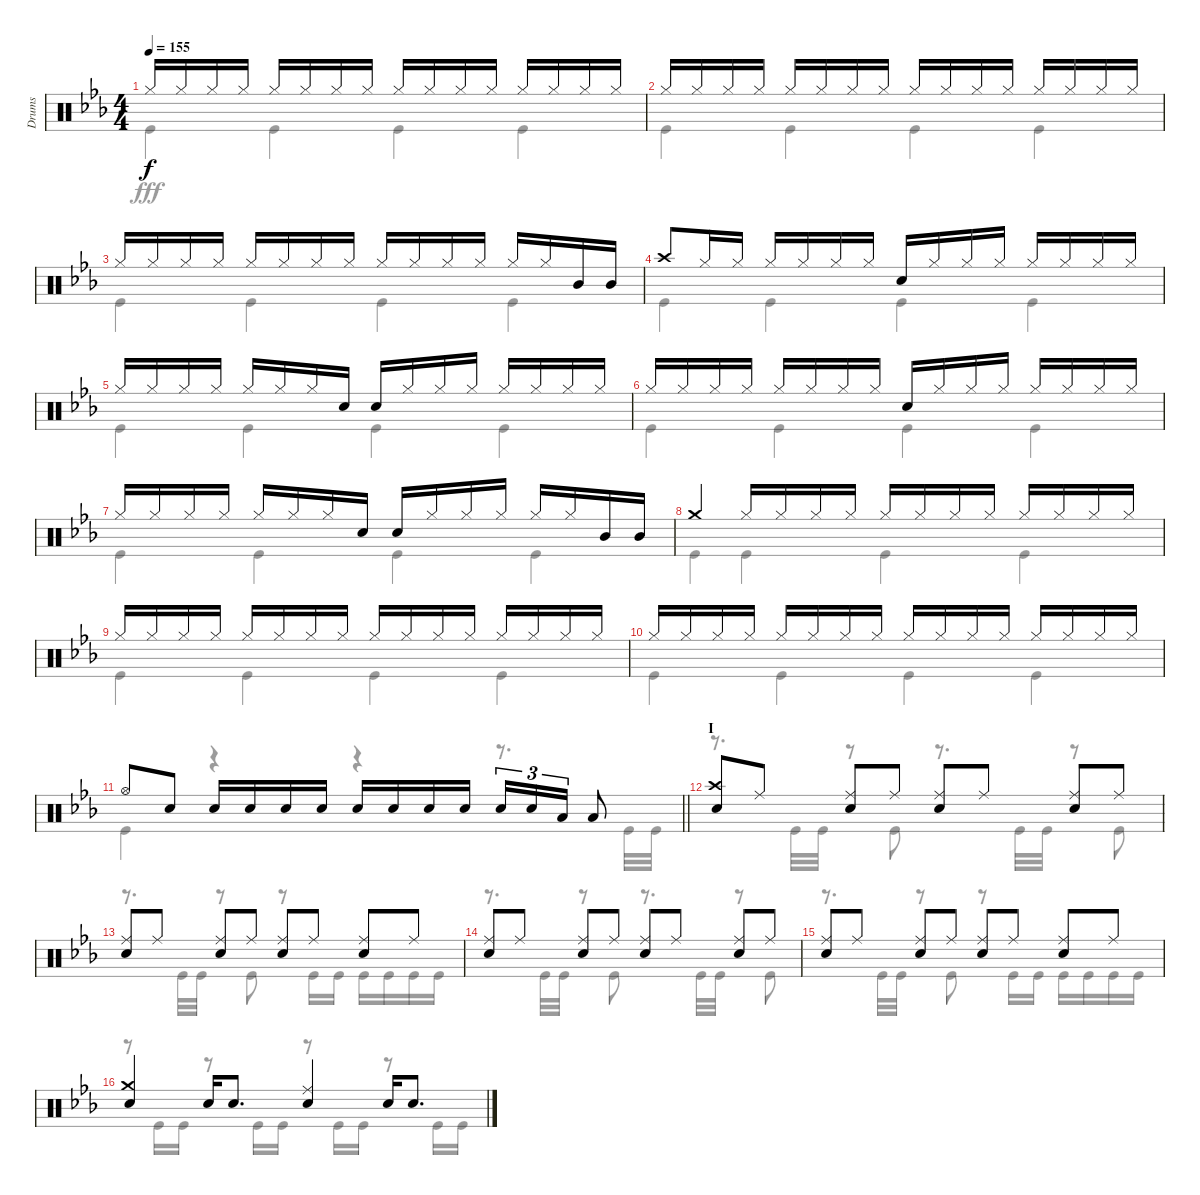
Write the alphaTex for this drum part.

\track ("Drums" "Drums") {instrument percussion}
\staff {score}
\articulation defaults
\voice
\ts (4 4)
\tempo 155
\clef neutral
\ks eb "Hi-Hat (closed)".16{dy f} "Hi-Hat (closed)".16 "Hi-Hat (closed)".16 "Hi-Hat (closed)".16 "Hi-Hat (closed)".16 "Hi-Hat (closed)".16 "Hi-Hat (closed)".16 "Hi-Hat (closed)".16 "Hi-Hat (closed)".16 "Hi-Hat (closed)".16 "Hi-Hat (closed)".16 "Hi-Hat (closed)".16 "Hi-Hat (closed)".16 "Hi-Hat (closed)".16 "Hi-Hat (closed)".16 "Hi-Hat (closed)".16
|
"Hi-Hat (closed)".16 "Hi-Hat (closed)".16 "Hi-Hat (closed)".16 "Hi-Hat (closed)".16 "Hi-Hat (closed)".16 "Hi-Hat (closed)".16 "Hi-Hat (closed)".16 "Hi-Hat (closed)".16 "Hi-Hat (closed)".16 "Hi-Hat (closed)".16 "Hi-Hat (closed)".16 "Hi-Hat (closed)".16 "Hi-Hat (closed)".16 "Hi-Hat (closed)".16 "Hi-Hat (closed)".16 "Hi-Hat (closed)".16 |
"Hi-Hat (closed)".16 "Hi-Hat (closed)".16 "Hi-Hat (closed)".16 "Hi-Hat (closed)".16 "Hi-Hat (closed)".16 "Hi-Hat (closed)".16 "Hi-Hat (closed)".16 "Hi-Hat (closed)".16 "Hi-Hat (closed)".16 "Hi-Hat (closed)".16 "Hi-Hat (closed)".16 "Hi-Hat (closed)".16 "Hi-Hat (closed)".16 "Hi-Hat (closed)".16 "Mid Tom (hit)".16 "Mid Tom (hit)".16 |
"Crash high (hit)".8 "Hi-Hat (closed)".16 "Hi-Hat (closed)".16 "Hi-Hat (closed)".16 "Hi-Hat (closed)".16 "Hi-Hat (closed)".16 "Hi-Hat (closed)".16 "Snare (hit) 2".16 "Hi-Hat (closed)".16 "Hi-Hat (closed)".16 "Hi-Hat (closed)".16 "Hi-Hat (closed)".16 "Hi-Hat (closed)".16 "Hi-Hat (closed)".16 "Hi-Hat (closed)".16 |
"Hi-Hat (closed)".16 "Hi-Hat (closed)".16 "Hi-Hat (closed)".16 "Hi-Hat (closed)".16 "Hi-Hat (closed)".16 "Hi-Hat (closed)".16 "Hi-Hat (closed)".16 "Snare (hit) 2".16 "Snare (hit) 2".16 "Hi-Hat (closed)".16 "Hi-Hat (closed)".16 "Hi-Hat (closed)".16 "Hi-Hat (closed)".16 "Hi-Hat (closed)".16 "Hi-Hat (closed)".16 "Hi-Hat (closed)".16 |
"Hi-Hat (closed)".16 "Hi-Hat (closed)".16 "Hi-Hat (closed)".16 "Hi-Hat (closed)".16 "Hi-Hat (closed)".16 "Hi-Hat (closed)".16 "Hi-Hat (closed)".16 "Hi-Hat (closed)".16 "Snare (hit) 2".16 "Hi-Hat (closed)".16 "Hi-Hat (closed)".16 "Hi-Hat (closed)".16 "Hi-Hat (closed)".16 "Hi-Hat (closed)".16 "Hi-Hat (closed)".16 "Hi-Hat (closed)".16 |
"Hi-Hat (closed)".16 "Hi-Hat (closed)".16 "Hi-Hat (closed)".16 "Hi-Hat (closed)".16 "Hi-Hat (closed)".16 "Hi-Hat (closed)".16 "Hi-Hat (closed)".16 "Snare (hit) 2".16 "Snare (hit) 2".16 "Hi-Hat (closed)".16 "Hi-Hat (closed)".16 "Hi-Hat (closed)".16 "Hi-Hat (closed)".16 "Hi-Hat (closed)".16 "Mid Tom (hit)".16 "Mid Tom (hit)".16 |
"Crash medium (hit)".4 "Hi-Hat (closed)".16 "Hi-Hat (closed)".16 "Hi-Hat (closed)".16 "Hi-Hat (closed)".16 "Hi-Hat (closed)".16 "Hi-Hat (closed)".16 "Hi-Hat (closed)".16 "Hi-Hat (closed)".16 "Hi-Hat (closed)".16 "Hi-Hat (closed)".16 "Hi-Hat (closed)".16 "Hi-Hat (closed)".16 |
"Hi-Hat (closed)".16 "Hi-Hat (closed)".16 "Hi-Hat (closed)".16 "Hi-Hat (closed)".16 "Hi-Hat (closed)".16 "Hi-Hat (closed)".16 "Hi-Hat (closed)".16 "Hi-Hat (closed)".16 "Hi-Hat (closed)".16 "Hi-Hat (closed)".16 "Hi-Hat (closed)".16 "Hi-Hat (closed)".16 "Hi-Hat (closed)".16 "Hi-Hat (closed)".16 "Hi-Hat (closed)".16 "Hi-Hat (closed)".16 |
"Hi-Hat (closed)".16 "Hi-Hat (closed)".16 "Hi-Hat (closed)".16 "Hi-Hat (closed)".16 "Hi-Hat (closed)".16 "Hi-Hat (closed)".16 "Hi-Hat (closed)".16 "Hi-Hat (closed)".16 "Hi-Hat (closed)".16 "Hi-Hat (closed)".16 "Hi-Hat (closed)".16 "Hi-Hat (closed)".16 "Hi-Hat (closed)".16 "Hi-Hat (closed)".16 "Hi-Hat (closed)".16 "Hi-Hat (closed)".16 |
\barLineRight lightlight "Hi-Hat (open)".8 "Snare (hit) 2".8 "Snare (hit) 2".16 "Snare (hit) 2".16 "Snare (hit) 2".16 "Snare (hit) 2".16 "Snare (hit) 2".16 "Snare (hit) 2".16 "Snare (hit) 2".16 "Snare (hit) 2".16 "Snare (hit) 2".16{tu (3 2)} "Snare (hit) 2".16{tu (3 2)} "Low Tom (hit)".16{tu (3 2)} "Low Tom (hit)".8
|
\section ("" "I")
("Crash high (hit)" "Snare (hit) 2").8 "Ride (middle)".8 ("Ride (middle)" "Snare (hit) 2").8 "Ride (middle)".8 ("Ride (middle)" "Snare (hit) 2").8 "Ride (middle)".8 ("Ride (middle)" "Snare (hit) 2").8 "Ride (middle)".8 |
("Ride (middle)" "Snare (hit) 2").8 "Ride (middle)".8 ("Ride (middle)" "Snare (hit) 2").8 "Ride (middle)".8 ("Ride (middle)" "Snare (hit) 2").8 "Ride (middle)".8 ("Ride (middle)" "Snare (hit) 2").8 "Ride (middle)".8 |
("Ride (middle)" "Snare (hit) 2").8 "Ride (middle)".8 ("Ride (middle)" "Snare (hit) 2").8 "Ride (middle)".8 ("Ride (middle)" "Snare (hit) 2").8 "Ride (middle)".8 ("Ride (middle)" "Snare (hit) 2").8 "Ride (middle)".8 |
("Ride (middle)" "Snare (hit) 2").8 "Ride (middle)".8 ("Ride (middle)" "Snare (hit) 2").8 "Ride (middle)".8 ("Ride (middle)" "Snare (hit) 2").8 "Ride (middle)".8 ("Ride (middle)" "Snare (hit) 2").8 "Ride (middle)".8 |
("Crash medium (hit)" "Snare (hit) 2").4 "Snare (hit) 2".16 "Snare (hit) 2".8{d} ("Ride (middle)" "Snare (hit) 2").4 "Snare (hit) 2".16 "Snare (hit) 2".8{d}
\voice
\clef neutral
\ottava regular
\simile none
\ks eb "Kick (hit)".4{dy fff} "Kick (hit)".4 "Kick (hit)".4 "Kick (hit)".4
|
"Kick (hit)".4 "Kick (hit)".4 "Kick (hit)".4 "Kick (hit)".4 |
"Kick (hit)".4 "Kick (hit)".4 "Kick (hit)".4 "Kick (hit)".4 |
"Kick (hit)".4 "Kick (hit)".4 "Kick (hit)".4 "Kick (hit)".4 |
"Kick (hit)".4 "Kick (hit)".4 "Kick (hit)".4 "Kick (hit)".4 |
"Kick (hit)".4 "Kick (hit)".4 "Kick (hit)".4 "Kick (hit)".4 |
"Kick (hit)".4 "Kick (hit)".4 "Kick (hit)".4 "Kick (hit)".4 |
"Kick (hit)".4 "Kick (hit)".4 "Kick (hit)".4 "Kick (hit)".4 |
"Kick (hit)".4 "Kick (hit)".4 "Kick (hit)".4 "Kick (hit)".4 |
"Kick (hit)".4 "Kick (hit)".4 "Kick (hit)".4 "Kick (hit)".4 |
\barLineRight lightlight "Kick (hit)".4
r.4 r.4 r.8{d} "Kick (hit)".32 "Kick (hit)".32 |
r.8{d} "Kick (hit)".32 "Kick (hit)".32 r.8 "Kick (hit)".8 r.8{d} "Kick (hit)".32 "Kick (hit)".32 r.8 "Kick (hit)".8 |
r.8{d} "Kick (hit)".32 "Kick (hit)".32 r.8 "Kick (hit)".8 r.8 "Kick (hit)".16 "Kick (hit)".16 "Kick (hit)".16 "Kick (hit)".16 "Kick (hit)".16 "Kick (hit)".16 |
r.8{d} "Kick (hit)".32 "Kick (hit)".32 r.8 "Kick (hit)".8 r.8{d} "Kick (hit)".32 "Kick (hit)".32 r.8 "Kick (hit)".8 |
r.8{d} "Kick (hit)".32 "Kick (hit)".32 r.8 "Kick (hit)".8 r.8 "Kick (hit)".16 "Kick (hit)".16 "Kick (hit)".16 "Kick (hit)".16 "Kick (hit)".16 "Kick (hit)".16 |
r.8 "Kick (hit)".16 "Kick (hit)".16 r.8 "Kick (hit)".16 "Kick (hit)".16 r.8 "Kick (hit)".16 "Kick (hit)".16 r.8 "Kick (hit)".16 "Kick (hit)".16
